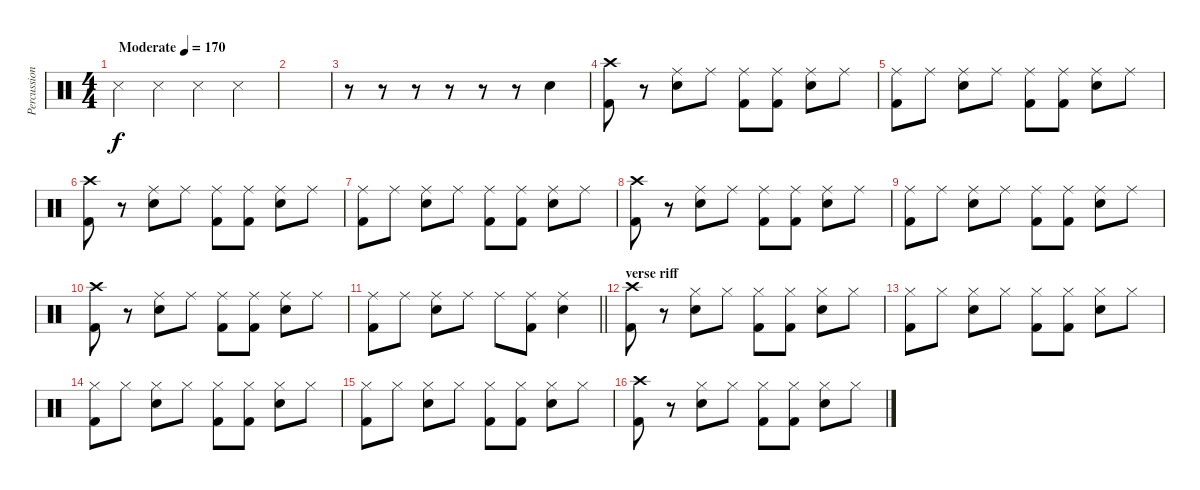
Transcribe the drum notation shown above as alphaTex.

\track ("Percussion" "Percussion") {instrument percussion}
\staff {score}
\articulation defaults
\ts (4 4)
\tempo (170 "Moderate")
\clef neutral
\ks c "Snare (side stick) 3".4{dy f} "Snare (side stick) 3".4 "Snare (side stick) 3".4 "Snare (side stick) 3".4
|
|
r.8 r.8 r.8 r.8 r.8 r.8 "Snare (hit) 2".4 |
("Crash high (hit)" "Kick (hit) 2").8 r.8 ("Ride (middle)" "Snare (hit) 2").8 "Ride (middle)".8 ("Ride (middle)" "Kick (hit) 2").8 ("Ride (middle)" "Kick (hit) 2").8 ("Ride (middle)" "Snare (hit) 2").8 "Ride (middle)".8 |
("Ride (middle)" "Kick (hit) 2").8 "Ride (middle)".8 ("Ride (middle)" "Snare (hit) 2").8 "Ride (middle)".8 ("Ride (middle)" "Kick (hit) 2").8 ("Ride (middle)" "Kick (hit) 2").8 ("Ride (middle)" "Snare (hit) 2").8 "Ride (middle)".8 |
("Crash high (hit)" "Kick (hit) 2").8 r.8 ("Ride (middle)" "Snare (hit) 2").8 "Ride (middle)".8 ("Ride (middle)" "Kick (hit) 2").8 ("Ride (middle)" "Kick (hit) 2").8 ("Ride (middle)" "Snare (hit) 2").8 "Ride (middle)".8 |
("Ride (middle)" "Kick (hit) 2").8 "Ride (middle)".8 ("Ride (middle)" "Snare (hit) 2").8 "Ride (middle)".8 ("Ride (middle)" "Kick (hit) 2").8 ("Ride (middle)" "Kick (hit) 2").8 ("Ride (middle)" "Snare (hit) 2").8 "Ride (middle)".8 |
("Crash high (hit)" "Kick (hit) 2").8 r.8 ("Ride (middle)" "Snare (hit) 2").8 "Ride (middle)".8 ("Ride (middle)" "Kick (hit) 2").8 ("Ride (middle)" "Kick (hit) 2").8 ("Ride (middle)" "Snare (hit) 2").8 "Ride (middle)".8 |
("Ride (middle)" "Kick (hit) 2").8 "Ride (middle)".8 ("Ride (middle)" "Snare (hit) 2").8 "Ride (middle)".8 ("Ride (middle)" "Kick (hit) 2").8 ("Ride (middle)" "Kick (hit) 2").8 ("Ride (middle)" "Snare (hit) 2").8 "Ride (middle)".8 |
("Crash high (hit)" "Kick (hit) 2").8 r.8 ("Ride (middle)" "Snare (hit) 2").8 "Ride (middle)".8 ("Ride (middle)" "Kick (hit) 2").8 ("Ride (middle)" "Kick (hit) 2").8 ("Ride (middle)" "Snare (hit) 2").8 "Ride (middle)".8 |
\barLineRight lightlight
("Ride (middle)" "Kick (hit) 2").8 "Ride (middle)".8 ("Ride (middle)" "Snare (hit) 2").8 "Ride (middle)".8 "Ride (middle)".8 ("Ride (middle)" "Kick (hit) 2").8 ("Ride (middle)" "Snare (hit) 2").4 |
\section ("" "verse riff")
("Crash high (hit)" "Kick (hit) 2").8 r.8 ("Hi-Hat (closed)" "Snare (hit) 2").8 "Hi-Hat (closed)".8 ("Hi-Hat (closed)" "Kick (hit) 2").8 ("Hi-Hat (closed)" "Kick (hit) 2").8 ("Hi-Hat (closed)" "Snare (hit) 2").8 "Hi-Hat (closed)".8 |
("Hi-Hat (closed)" "Kick (hit) 2").8 "Hi-Hat (closed)".8 ("Hi-Hat (closed)" "Snare (hit) 2").8 "Hi-Hat (closed)".8 ("Hi-Hat (closed)" "Kick (hit) 2").8 ("Hi-Hat (closed)" "Kick (hit) 2").8 ("Hi-Hat (closed)" "Snare (hit) 2").8 "Hi-Hat (closed)".8 |
("Hi-Hat (closed)" "Kick (hit) 2").8 "Hi-Hat (closed)".8 ("Hi-Hat (closed)" "Snare (hit) 2").8 "Hi-Hat (closed)".8 ("Hi-Hat (closed)" "Kick (hit) 2").8 ("Hi-Hat (closed)" "Kick (hit) 2").8 ("Hi-Hat (closed)" "Snare (hit) 2").8 "Hi-Hat (closed)".8 |
("Hi-Hat (closed)" "Kick (hit) 2").8 "Hi-Hat (closed)".8 ("Hi-Hat (closed)" "Snare (hit) 2").8 "Hi-Hat (closed)".8 ("Hi-Hat (closed)" "Kick (hit) 2").8 ("Hi-Hat (closed)" "Kick (hit) 2").8 ("Hi-Hat (closed)" "Snare (hit) 2").8 "Hi-Hat (closed)".8 |
("Crash high (hit)" "Kick (hit) 2").8 r.8 ("Hi-Hat (closed)" "Snare (hit) 2").8 "Hi-Hat (closed)".8 ("Hi-Hat (closed)" "Kick (hit) 2").8 ("Hi-Hat (closed)" "Kick (hit) 2").8 ("Hi-Hat (closed)" "Snare (hit) 2").8 "Hi-Hat (closed)".8
